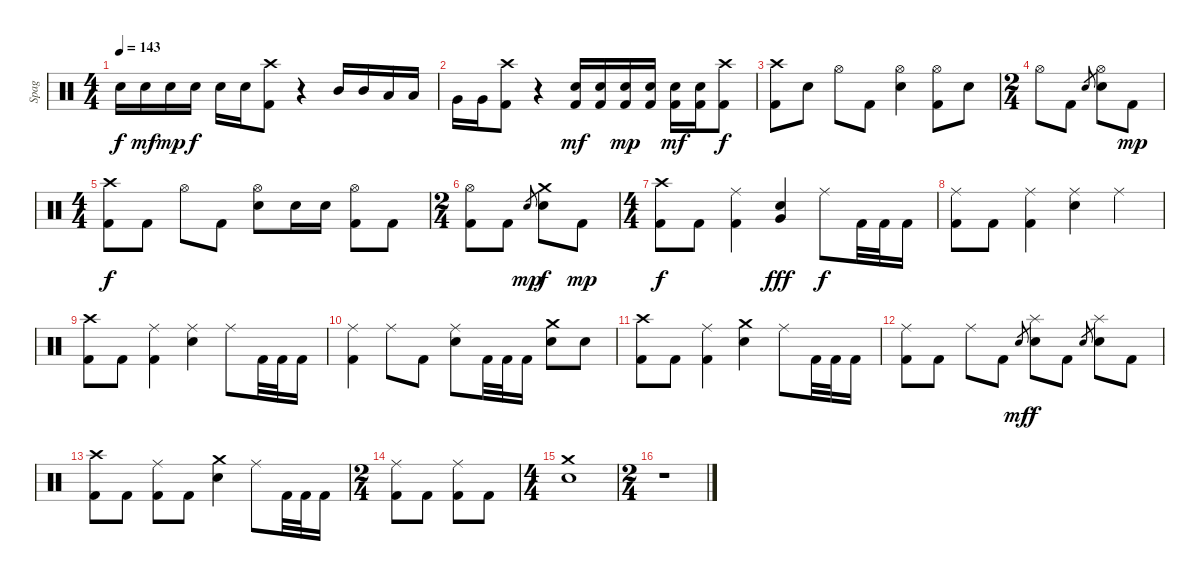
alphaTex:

\track ("Spag" "Spag") {instrument percussion}
\staff {score}
\articulation defaults
\ts (4 4)
\tempo 143
\clef neutral
\ks c "Electric Snare (hit)".16{dy f} "Electric Snare (hit)".16{dy mf} "Electric Snare (hit)".16{dy mp} "Electric Snare (hit)".16{dy f} "Electric Snare (hit)".16 "Electric Snare (hit)".16
("Crash high (hit)" "Kick (hit) 2").8 r.4 "Mid Tom (hit)".16 "Mid Tom (hit)".16 "Low Tom (hit)".16 "Low Tom (hit)".16 |
"Very Low Tom (hit)".16 "Very Low Tom (hit)".16 ("Crash high (hit)" "Kick (hit) 2").8 r.4 ("Electric Snare (hit)" "Kick (hit) 2").16{dy mf} ("Electric Snare (hit)" "Kick (hit) 2").16 ("Electric Snare (hit)" "Kick (hit) 2").16{dy mp} ("Electric Snare (hit)" "Kick (hit) 2").16 ("Electric Snare (hit)" "Kick (hit) 2").16{dy mf} ("Electric Snare (hit)" "Kick (hit) 2").16 ("Crash high (hit)" "Kick (hit) 2").8{dy f} |
("Crash high (hit)" "Kick (hit) 2").8 "Electric Snare (hit)".8 "Hi-Hat (open)".8 "Kick (hit) 2".8 ("Hi-Hat (open)" "Electric Snare (hit)").4 ("Hi-Hat (open)" "Kick (hit) 2").8 "Electric Snare (hit)".8 |
\ts (2 4)
"Hi-Hat (open)".8 "Kick (hit) 2".8 "Electric Snare (hit)".8{gr} ("Hi-Hat (open)" "Electric Snare (hit)").8 "Kick (hit) 2".8{dy mp} |
\ts (4 4)
("Crash high (hit)" "Kick (hit) 2").8{dy f} "Kick (hit) 2".8 "Hi-Hat (open)".8 "Kick (hit) 2".8 ("Hi-Hat (open)" "Electric Snare (hit)").8 "Electric Snare (hit)".16 "Electric Snare (hit)".16 ("Hi-Hat (open)" "Kick (hit) 2").8 "Kick (hit) 2".8 |
\ts (2 4)
("Hi-Hat (open)" "Kick (hit) 2").8 "Kick (hit) 2".8 "Electric Snare (hit)".8{gr dy mp} ("Crash medium (hit)" "Electric Snare (hit)").8{dy f} "Kick (hit) 2".8{dy mp} |
\ts (4 4)
("Crash high (hit)" "Kick (hit) 2").8{dy f} "Kick (hit) 2".8 ("Ride (middle)" "Kick (hit) 2").4 ("Electric Snare (hit)" "Very Low Tom (hit)").4{dy fff} "Ride (middle)".8{dy f} "Kick (hit) 2".32 "Kick (hit) 2".32 "Kick (hit) 2".16 |
("Ride (middle)" "Kick (hit) 2").8 "Kick (hit) 2".8 ("Ride (middle)" "Kick (hit) 2").4 ("Ride (middle)" "Electric Snare (hit)").4 "Ride (middle)".4 |
("Crash high (hit)" "Kick (hit) 2").8 "Kick (hit) 2".8 ("Ride (middle)" "Kick (hit) 2").4 ("Ride (middle)" "Electric Snare (hit)").4 "Ride (middle)".8 "Kick (hit) 2".32 "Kick (hit) 2".32 "Kick (hit) 2".16 |
("Ride (middle)" "Kick (hit) 2").4 "Ride (middle)".8 "Kick (hit) 2".8 ("Ride (middle)" "Electric Snare (hit)").8 "Kick (hit) 2".32 "Kick (hit) 2".32 "Kick (hit) 2".16 ("Crash medium (hit)" "Electric Snare (hit)").8 "Electric Snare (hit)".8 |
("Crash high (hit)" "Kick (hit) 2").8 "Kick (hit) 2".8 ("Ride (middle)" "Kick (hit) 2").4 ("Crash medium (hit)" "Electric Snare (hit)").4 "Ride (middle)".8 "Kick (hit) 2".32 "Kick (hit) 2".32 "Kick (hit) 2".16 |
("Ride (middle)" "Kick (hit) 2").8 "Kick (hit) 2".8 "Ride (middle)".8 "Kick (hit) 2".8 "Electric Snare (hit)".8{gr dy mf} ("Splash (hit)" "Electric Snare (hit)").8{dy f} "Kick (hit) 2".8 "Electric Snare (hit)".8{gr} ("Splash (hit)" "Electric Snare (hit)").8 "Kick (hit) 2".8 |
("Crash high (hit)" "Kick (hit) 2").8 "Kick (hit) 2".8 ("Ride (middle)" "Kick (hit) 2").8 "Kick (hit) 2".8 ("Crash medium (hit)" "Electric Snare (hit)").4 "Ride (middle)".8 "Kick (hit) 2".32 "Kick (hit) 2".32 "Kick (hit) 2".16 |
\ts (2 4)
("Ride (middle)" "Kick (hit) 2").8 "Kick (hit) 2".8 ("Ride (middle)" "Kick (hit) 2").8 "Kick (hit) 2".8 |
\ts (4 4)
("Crash medium (hit)" "Electric Snare (hit)").1 |
\ts (2 4)
r.1
